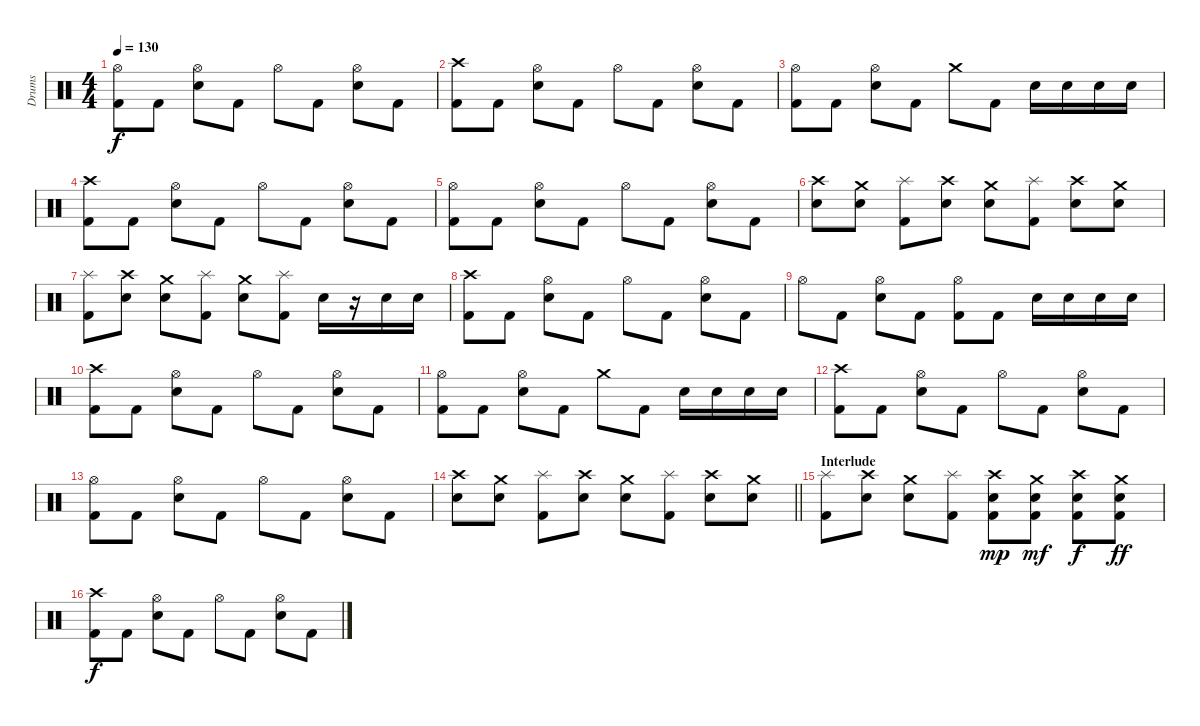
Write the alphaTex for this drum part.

\track ("Drums" "Drums") {instrument percussion}
\staff {score}
\articulation defaults
\ts (4 4)
\tempo 130
\clef neutral
\ks c
("Hi-Hat (open)" "Kick (hit) 2").8{dy f} "Kick (hit) 2".8 ("Hi-Hat (open)" "Electric Snare (hit)").8 "Kick (hit) 2".8 "Hi-Hat (open)".8 "Kick (hit) 2".8 ("Hi-Hat (open)" "Electric Snare (hit)").8 "Kick (hit) 2".8 |
("Crash high (hit)" "Kick (hit) 2").8 "Kick (hit) 2".8 ("Hi-Hat (open)" "Electric Snare (hit)").8 "Kick (hit) 2".8 "Hi-Hat (open)".8 "Kick (hit) 2".8 ("Hi-Hat (open)" "Electric Snare (hit)").8 "Kick (hit) 2".8 |
("Hi-Hat (open)" "Kick (hit) 2").8 "Kick (hit) 2".8 ("Hi-Hat (open)" "Electric Snare (hit)").8 "Kick (hit) 2".8 "Crash medium (hit)".8 "Kick (hit) 2".8 "Electric Snare (hit)".16 "Electric Snare (hit)".16 "Electric Snare (hit)".16 "Electric Snare (hit)".16 |
("Crash high (hit)" "Kick (hit) 2").8 "Kick (hit) 2".8 ("Hi-Hat (open)" "Electric Snare (hit)").8 "Kick (hit) 2".8 "Hi-Hat (open)".8 "Kick (hit) 2".8 ("Hi-Hat (open)" "Electric Snare (hit)").8 "Kick (hit) 2".8 |
("Hi-Hat (open)" "Kick (hit) 2").8 "Kick (hit) 2".8 ("Hi-Hat (open)" "Electric Snare (hit)").8 "Kick (hit) 2".8 "Hi-Hat (open)".8 "Kick (hit) 2".8 ("Hi-Hat (open)" "Electric Snare (hit)").8 "Kick (hit) 2".8 |
("Crash high (hit)" "Electric Snare (hit)").8 ("Crash medium (hit)" "Electric Snare (hit)").8 ("Splash (hit)" "Kick (hit) 2").8 ("Crash high (hit)" "Electric Snare (hit)").8 ("Crash medium (hit)" "Electric Snare (hit)").8 ("Splash (hit)" "Kick (hit) 2").8 ("Crash high (hit)" "Electric Snare (hit)").8 ("Crash medium (hit)" "Electric Snare (hit)").8 |
("Splash (hit)" "Kick (hit) 2").8 ("Crash high (hit)" "Electric Snare (hit)").8 ("Crash medium (hit)" "Electric Snare (hit)").8 ("Splash (hit)" "Kick (hit) 2").8 ("Crash medium (hit)" "Electric Snare (hit)").8 ("Splash (hit)" "Kick (hit) 2").8 "Electric Snare (hit)".16 r.16 "Electric Snare (hit)".16 "Electric Snare (hit)".16 |
("Crash high (hit)" "Kick (hit) 2").8 "Kick (hit) 2".8 ("Hi-Hat (open)" "Electric Snare (hit)").8 "Kick (hit) 2".8 "Hi-Hat (open)".8 "Kick (hit) 2".8 ("Hi-Hat (open)" "Electric Snare (hit)").8 "Kick (hit) 2".8 |
"Hi-Hat (open)".8 "Kick (hit) 2".8 ("Hi-Hat (open)" "Electric Snare (hit)").8 "Kick (hit) 2".8 ("Hi-Hat (open)" "Kick (hit) 2").8 "Kick (hit) 2".8 "Electric Snare (hit)".16 "Electric Snare (hit)".16 "Electric Snare (hit)".16 "Electric Snare (hit)".16 |
("Crash high (hit)" "Kick (hit) 2").8 "Kick (hit) 2".8 ("Hi-Hat (open)" "Electric Snare (hit)").8 "Kick (hit) 2".8 "Hi-Hat (open)".8 "Kick (hit) 2".8 ("Hi-Hat (open)" "Electric Snare (hit)").8 "Kick (hit) 2".8 |
("Hi-Hat (open)" "Kick (hit) 2").8 "Kick (hit) 2".8 ("Hi-Hat (open)" "Electric Snare (hit)").8 "Kick (hit) 2".8 "Crash medium (hit)".8 "Kick (hit) 2".8 "Electric Snare (hit)".16 "Electric Snare (hit)".16 "Electric Snare (hit)".16 "Electric Snare (hit)".16 |
("Crash high (hit)" "Kick (hit) 2").8 "Kick (hit) 2".8 ("Hi-Hat (open)" "Electric Snare (hit)").8 "Kick (hit) 2".8 "Hi-Hat (open)".8 "Kick (hit) 2".8 ("Hi-Hat (open)" "Electric Snare (hit)").8 "Kick (hit) 2".8 |
("Hi-Hat (open)" "Kick (hit) 2").8 "Kick (hit) 2".8 ("Hi-Hat (open)" "Electric Snare (hit)").8 "Kick (hit) 2".8 "Hi-Hat (open)".8 "Kick (hit) 2".8 ("Hi-Hat (open)" "Electric Snare (hit)").8 "Kick (hit) 2".8 |
\barLineRight lightlight
("Crash high (hit)" "Electric Snare (hit)").8 ("Crash medium (hit)" "Electric Snare (hit)").8 ("Splash (hit)" "Kick (hit) 2").8 ("Crash high (hit)" "Electric Snare (hit)").8 ("Crash medium (hit)" "Electric Snare (hit)").8 ("Splash (hit)" "Kick (hit) 2").8 ("Crash high (hit)" "Electric Snare (hit)").8 ("Crash medium (hit)" "Electric Snare (hit)").8 |
\section ("" "Interlude")
("Splash (hit)" "Kick (hit) 2").8 ("Crash high (hit)" "Electric Snare (hit)").8 ("Crash medium (hit)" "Electric Snare (hit)").8 ("Splash (hit)" "Kick (hit) 2").8 ("Crash high (hit)" "Electric Snare (hit)" "Kick (hit) 2").8{dy mp} ("Crash medium (hit)" "Electric Snare (hit)" "Kick (hit) 2").8{dy mf} ("Crash high (hit)" "Electric Snare (hit)" "Kick (hit) 2").8{dy f} ("Crash medium (hit)" "Electric Snare (hit)" "Kick (hit) 2").8{dy ff} |
("Crash high (hit)" "Kick (hit) 2").8{dy f} "Kick (hit) 2".8 ("Hi-Hat (open)" "Electric Snare (hit)").8 "Kick (hit) 2".8 "Hi-Hat (open)".8 "Kick (hit) 2".8 ("Hi-Hat (open)" "Electric Snare (hit)").8 "Kick (hit) 2".8
